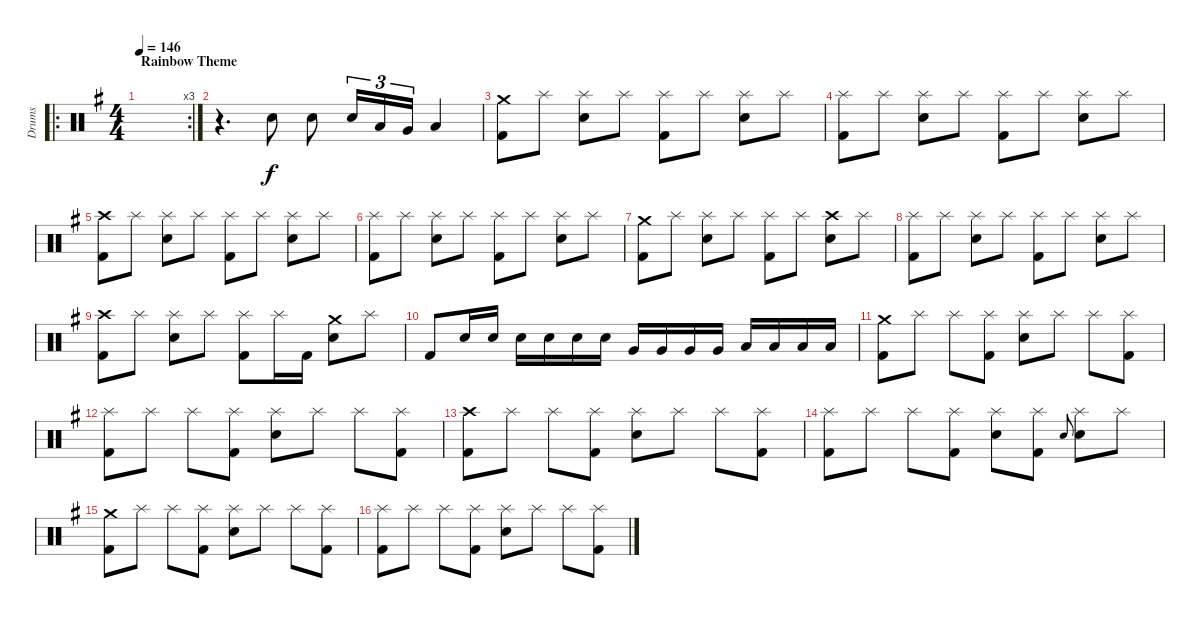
\track ("Drums" "Drums") {instrument percussion}
\staff {score}
\articulation defaults
\ro
\rc 3
\ts (4 4)
\section ("" "Rainbow Theme")
\tempo 146
\clef neutral
\ks eminor
|
r.4{d} "Electric Snare (hit)".8 "Electric Snare (hit)".8 "Electric Snare (hit)".16{tu (3 2)} "Low Tom (hit)".16{tu (3 2)} "Very Low Tom (hit)".16{tu (3 2)} "Low Floor Tom (hit)".4 |
("Crash medium (hit)" "Kick (hit) 2").8 "Splash (hit)".8 ("Splash (hit)" "Snare (hit) 2").8 "Splash (hit)".8 ("Splash (hit)" "Kick (hit) 2").8 "Splash (hit)".8 ("Splash (hit)" "Snare (hit) 2").8 "Splash (hit)".8 |
("Splash (hit)" "Kick (hit) 2").8 "Splash (hit)".8 ("Splash (hit)" "Snare (hit) 2").8 "Splash (hit)".8 ("Splash (hit)" "Kick (hit) 2").8 "Splash (hit)".8 ("Splash (hit)" "Snare (hit) 2").8 "Splash (hit)".8 |
("Crash high (hit)" "Kick (hit) 2").8 "Splash (hit)".8 ("Splash (hit)" "Snare (hit) 2").8 "Splash (hit)".8 ("Splash (hit)" "Kick (hit) 2").8 "Splash (hit)".8 ("Splash (hit)" "Snare (hit) 2").8 "Splash (hit)".8 |
("Splash (hit)" "Kick (hit) 2").8 "Splash (hit)".8 ("Splash (hit)" "Snare (hit) 2").8 "Splash (hit)".8 ("Splash (hit)" "Kick (hit) 2").8 "Splash (hit)".8 ("Splash (hit)" "Snare (hit) 2").8 "Splash (hit)".8 |
("Crash medium (hit)" "Kick (hit) 2").8 "Splash (hit)".8 ("Splash (hit)" "Snare (hit) 2").8 "Splash (hit)".8 ("Splash (hit)" "Kick (hit) 2").8 "Splash (hit)".8 ("Crash high (hit)" "Snare (hit) 2").8 "Splash (hit)".8 |
("Splash (hit)" "Kick (hit) 2").8 "Splash (hit)".8 ("Splash (hit)" "Snare (hit) 2").8 "Splash (hit)".8 ("Splash (hit)" "Kick (hit) 2").8 "Splash (hit)".8 ("Splash (hit)" "Snare (hit) 2").8 "Splash (hit)".8 |
("Crash high (hit)" "Kick (hit) 2").8 "Splash (hit)".8 ("Splash (hit)" "Snare (hit) 2").8 "Splash (hit)".8 ("Splash (hit)" "Kick (hit) 2").8 "Splash (hit)".16 "Kick (hit) 2".16 ("Crash medium (hit)" "Snare (hit) 2").8 "Splash (hit)".8 |
"Kick (hit) 2".8 "Electric Snare (hit)".16 "Electric Snare (hit)".16 "Electric Snare (hit)".16 "Electric Snare (hit)".16 "Electric Snare (hit)".16 "Electric Snare (hit)".16 "Very Low Tom (hit)".16 "Very Low Tom (hit)".16 "Very Low Tom (hit)".16 "Very Low Tom (hit)".16 "Low Floor Tom (hit)".16 "Low Floor Tom (hit)".16 "Low Floor Tom (hit)".16 "Low Floor Tom (hit)".16 |
("Crash medium (hit)" "Kick (hit) 2").8 "Splash (hit)".8 "Splash (hit)".8 ("Splash (hit)" "Kick (hit) 2").8 ("Splash (hit)" "Snare (hit) 2").8 "Splash (hit)".8 "Splash (hit)".8 ("Splash (hit)" "Kick (hit) 2").8 |
("Splash (hit)" "Kick (hit) 2").8 "Splash (hit)".8 "Splash (hit)".8 ("Splash (hit)" "Kick (hit) 2").8 ("Splash (hit)" "Snare (hit) 2").8 "Splash (hit)".8 "Splash (hit)".8 ("Splash (hit)" "Kick (hit) 2").8 |
("Crash high (hit)" "Kick (hit) 2").8 "Splash (hit)".8 "Splash (hit)".8 ("Splash (hit)" "Kick (hit) 2").8 ("Splash (hit)" "Snare (hit) 2").8 "Splash (hit)".8 "Splash (hit)".8 ("Splash (hit)" "Kick (hit) 2").8 |
("Splash (hit)" "Kick (hit) 2").8 "Splash (hit)".8 "Splash (hit)".8 ("Splash (hit)" "Kick (hit) 2").8 ("Splash (hit)" "Snare (hit) 2").8 ("Splash (hit)" "Kick (hit) 2").8 "Snare (hit) 2".8{gr onbeat} ("Splash (hit)" "Snare (hit) 2").8 "Splash (hit)".8 |
("Crash medium (hit)" "Kick (hit) 2").8 "Splash (hit)".8 "Splash (hit)".8 ("Splash (hit)" "Kick (hit) 2").8 ("Splash (hit)" "Snare (hit) 2").8 "Splash (hit)".8 "Splash (hit)".8 ("Splash (hit)" "Kick (hit) 2").8 |
("Splash (hit)" "Kick (hit) 2").8 "Splash (hit)".8 "Splash (hit)".8 ("Splash (hit)" "Kick (hit) 2").8 ("Splash (hit)" "Snare (hit) 2").8 "Splash (hit)".8 "Splash (hit)".8 ("Splash (hit)" "Kick (hit) 2").8
